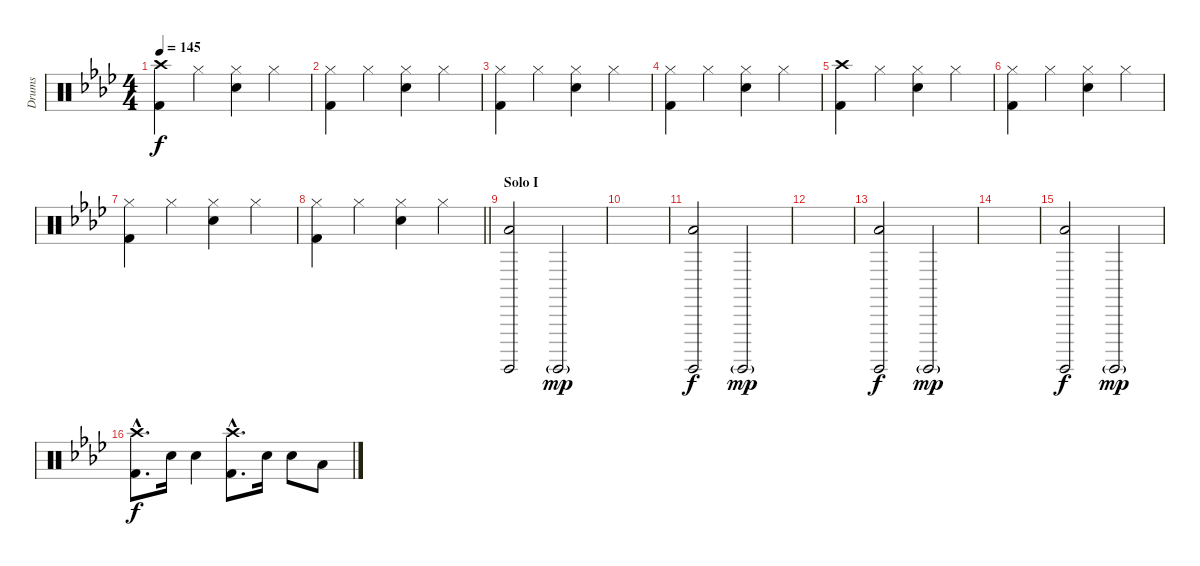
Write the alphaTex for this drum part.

\track ("Drums" "Drums") {instrument percussion}
\staff {score}
\articulation defaults
\ts (4 4)
\tempo 145
\clef neutral
\ks ab
("Crash high (hit)" "Kick (hit) 2").4{dy f} "Hi-Hat (closed)".4 ("Hi-Hat (closed)" "Electric Snare (hit)").4 "Hi-Hat (closed)".4 |
("Hi-Hat (closed)" "Kick (hit) 2").4 "Hi-Hat (closed)".4 ("Hi-Hat (closed)" "Electric Snare (hit)").4 "Hi-Hat (closed)".4 |
("Hi-Hat (closed)" "Kick (hit) 2").4 "Hi-Hat (closed)".4 ("Hi-Hat (closed)" "Electric Snare (hit)").4 "Hi-Hat (closed)".4 |
("Hi-Hat (closed)" "Kick (hit) 2").4 "Hi-Hat (closed)".4 ("Hi-Hat (closed)" "Electric Snare (hit)").4 "Hi-Hat (closed)".4 |
("Crash high (hit)" "Kick (hit) 2").4 "Hi-Hat (closed)".4 ("Hi-Hat (closed)" "Electric Snare (hit)").4 "Hi-Hat (closed)".4 |
("Hi-Hat (closed)" "Kick (hit) 2").4 "Hi-Hat (closed)".4 ("Hi-Hat (closed)" "Electric Snare (hit)").4 "Hi-Hat (closed)".4 |
("Hi-Hat (closed)" "Kick (hit) 2").4 "Hi-Hat (closed)".4 ("Hi-Hat (closed)" "Electric Snare (hit)").4 "Hi-Hat (closed)".4 |
\barLineRight lightlight
("Hi-Hat (closed)" "Kick (hit) 2").4 "Hi-Hat (closed)".4 ("Hi-Hat (closed)" "Electric Snare (hit)").4 "Hi-Hat (closed)".4 |
\section ("" "Solo I")
("Low Tom (hit)" "Surdo (hit)").2 "Surdo (hit)"{g}.2{dy mp} |
|
("Low Tom (hit)" "Surdo (hit)").2{dy f} "Surdo (hit)"{g}.2{dy mp} |
|
("Low Tom (hit)" "Surdo (hit)").2{dy f} "Surdo (hit)"{g}.2{dy mp} |
|
("Low Tom (hit)" "Surdo (hit)").2{dy f} "Surdo (hit)"{g}.2{dy mp} |
("Crash high (hit)"{hac} "Kick (hit) 2"{hac}).8{d dy f} "Electric Snare (hit)".16 "Electric Snare (hit)".4 ("Crash high (hit)"{hac} "Kick (hit) 2"{hac}).8{d} "Electric Snare (hit)".16 "Electric Snare (hit)".8 "Low Tom (hit)".8
